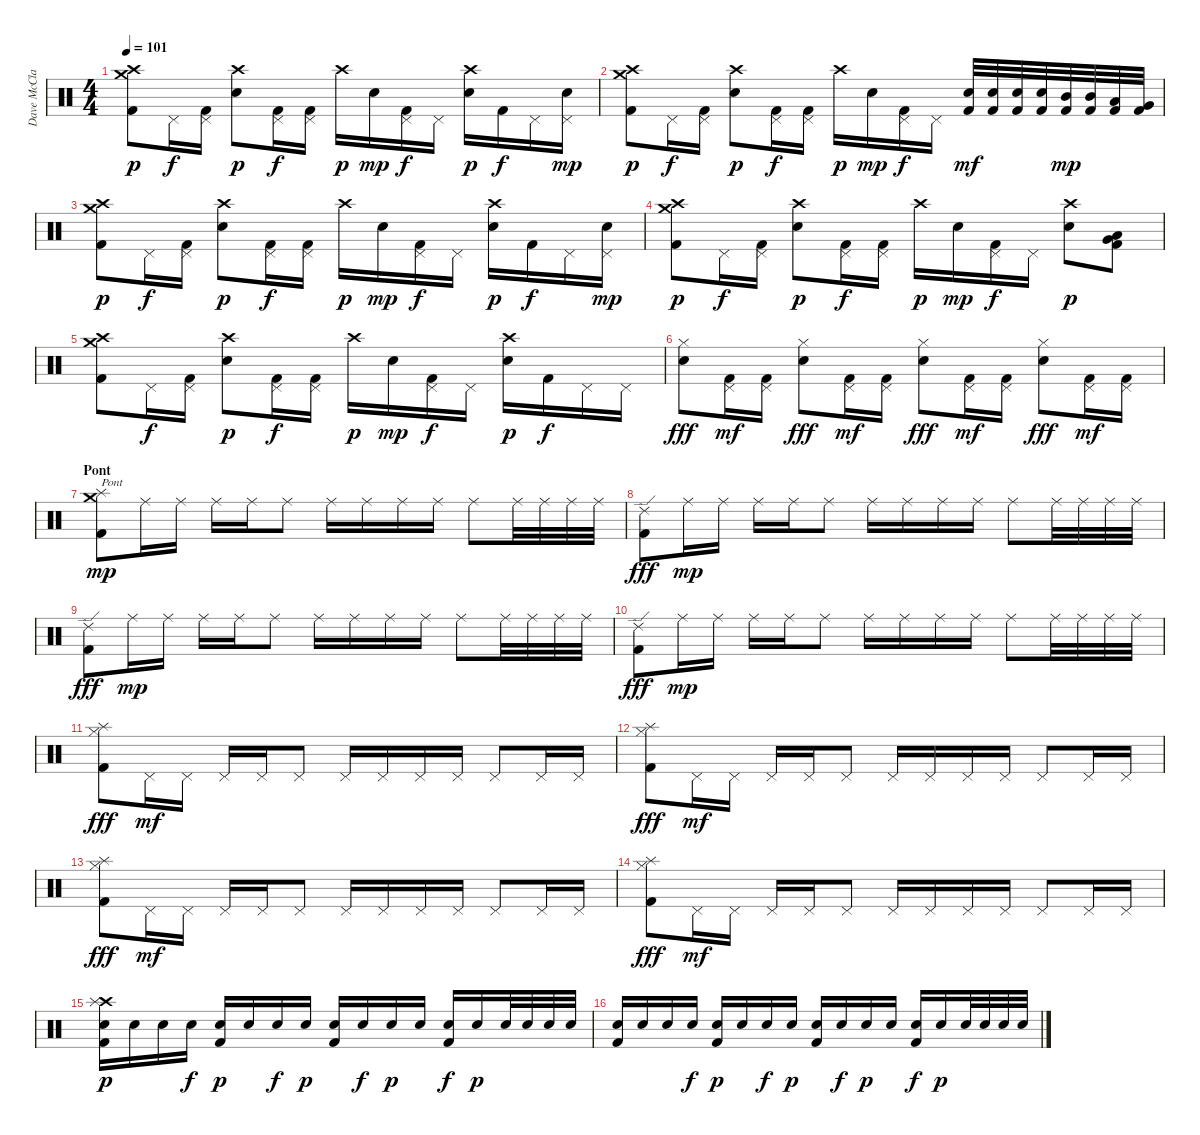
\track ("Dave McClain" "Dave McCla") {instrument percussion}
\staff {score}
\articulation defaults
\ts (4 4)
\tempo 101
\clef neutral
\ks c
("Crash medium (hit)" "Crash high (hit)" "Kick (hit) 2").8{dy p} "Pedal Hi-Hat (hit)".16{dy f} ("Pedal Hi-Hat (hit)" "Kick (hit) 2").16 ("Crash high (hit)" "Electric Snare (hit)").8{dy p} ("Pedal Hi-Hat (hit)" "Kick (hit) 2").16{dy f} ("Pedal Hi-Hat (hit)" "Kick (hit) 2").16 "Crash high (hit)".16{dy p} "Electric Snare (hit)".16{dy mp} ("Pedal Hi-Hat (hit)" "Kick (hit) 2").16{dy f} "Pedal Hi-Hat (hit)".16 ("Crash high (hit)" "Electric Snare (hit)").16{dy p} "Kick (hit) 2".16{dy f} "Pedal Hi-Hat (hit)".16 ("Electric Snare (hit)" "Pedal Hi-Hat (hit)").16{dy mp} |
("Crash medium (hit)" "Crash high (hit)" "Kick (hit) 2").8{dy p} "Pedal Hi-Hat (hit)".16{dy f} ("Pedal Hi-Hat (hit)" "Kick (hit) 2").16 ("Crash high (hit)" "Electric Snare (hit)").8{dy p} ("Pedal Hi-Hat (hit)" "Kick (hit) 2").16{dy f} ("Pedal Hi-Hat (hit)" "Kick (hit) 2").16 "Crash high (hit)".16{dy p} "Electric Snare (hit)".16{dy mp} ("Pedal Hi-Hat (hit)" "Kick (hit) 2").16{dy f} "Pedal Hi-Hat (hit)".16 ("Electric Snare (hit)" "Kick (hit) 2").32{dy mf} ("Electric Snare (hit)" "Kick (hit) 2").32 ("Electric Snare (hit)" "Kick (hit) 2").32 ("Electric Snare (hit)" "Kick (hit) 2").32 ("Mid Tom (hit)" "Kick (hit) 2").32{dy mp} ("Mid Tom (hit)" "Kick (hit) 2").32 ("Low Tom (hit)" "Kick (hit) 2").32 ("Very Low Tom (hit)" "Kick (hit) 2").32 |
("Crash medium (hit)" "Crash high (hit)" "Kick (hit) 2").8{dy p} "Pedal Hi-Hat (hit)".16{dy f} ("Pedal Hi-Hat (hit)" "Kick (hit) 2").16 ("Crash high (hit)" "Electric Snare (hit)").8{dy p} ("Pedal Hi-Hat (hit)" "Kick (hit) 2").16{dy f} ("Pedal Hi-Hat (hit)" "Kick (hit) 2").16 "Crash high (hit)".16{dy p} "Electric Snare (hit)".16{dy mp} ("Pedal Hi-Hat (hit)" "Kick (hit) 2").16{dy f} "Pedal Hi-Hat (hit)".16 ("Crash high (hit)" "Electric Snare (hit)").16{dy p} "Kick (hit) 2".16{dy f} "Pedal Hi-Hat (hit)".16 ("Electric Snare (hit)" "Pedal Hi-Hat (hit)").16{dy mp} |
("Crash medium (hit)" "Crash high (hit)" "Kick (hit) 2").8{dy p} "Pedal Hi-Hat (hit)".16{dy f} ("Pedal Hi-Hat (hit)" "Kick (hit) 2").16 ("Crash high (hit)" "Electric Snare (hit)").8{dy p} ("Pedal Hi-Hat (hit)" "Kick (hit) 2").16{dy f} ("Pedal Hi-Hat (hit)" "Kick (hit) 2").16 "Crash high (hit)".16{dy p} "Electric Snare (hit)".16{dy mp} ("Pedal Hi-Hat (hit)" "Kick (hit) 2").16{dy f} "Pedal Hi-Hat (hit)".16 ("Crash high (hit)" "Electric Snare (hit)").8{dy p} ("Very Low Tom (hit)" "Low Tom (hit)" "Kick (hit) 2").8 |
("Crash medium (hit)" "Crash high (hit)" "Kick (hit) 2").8 "Pedal Hi-Hat (hit)".16{dy f} ("Pedal Hi-Hat (hit)" "Kick (hit) 2").16 ("Crash high (hit)" "Electric Snare (hit)").8{dy p} ("Pedal Hi-Hat (hit)" "Kick (hit) 2").16{dy f} ("Pedal Hi-Hat (hit)" "Kick (hit) 2").16 "Crash high (hit)".16{dy p} "Electric Snare (hit)".16{dy mp} ("Pedal Hi-Hat (hit)" "Kick (hit) 2").16{dy f} "Pedal Hi-Hat (hit)".16 ("Crash high (hit)" "Electric Snare (hit)").16{dy p} "Kick (hit) 2".16{dy f} "Pedal Hi-Hat (hit)".16 "Pedal Hi-Hat (hit)".16 |
("Electric Snare (hit)" "Hi-Hat (closed)").8{dy fff} ("Pedal Hi-Hat (hit)" "Kick (hit) 2").16{dy mf} ("Pedal Hi-Hat (hit)" "Kick (hit) 2").16 ("Electric Snare (hit)" "Hi-Hat (closed)").8{dy fff} ("Pedal Hi-Hat (hit)" "Kick (hit) 2").16{dy mf} ("Pedal Hi-Hat (hit)" "Kick (hit) 2").16 ("Electric Snare (hit)" "Hi-Hat (closed)").8{dy fff} ("Pedal Hi-Hat (hit)" "Kick (hit) 2").16{dy mf} ("Pedal Hi-Hat (hit)" "Kick (hit) 2").16 ("Electric Snare (hit)" "Hi-Hat (closed)").8{dy fff} ("Pedal Hi-Hat (hit)" "Kick (hit) 2").16{dy mf} ("Pedal Hi-Hat (hit)" "Kick (hit) 2").16 |
\section ("" "Pont")
("Crash medium (hit)" "Splash (hit)" "Kick (hit) 2").8{txt "Pont" dy mp} "Ride (middle)".16 "Ride (middle)".16 "Ride (middle)".16 "Ride (middle)".16 "Ride (middle)".8 "Ride (middle)".16 "Ride (middle)".16 "Ride (middle)".16 "Ride (middle)".16 "Ride (middle)".8 "Ride (middle)".32 "Ride (middle)".32 "Ride (middle)".32 "Ride (middle)".32 |
("Ride (edge) 2" "Kick (hit) 2").8{dy fff} "Ride (middle)".16{dy mp} "Ride (middle)".16 "Ride (middle)".16 "Ride (middle)".16 "Ride (middle)".8 "Ride (middle)".16 "Ride (middle)".16 "Ride (middle)".16 "Ride (middle)".16 "Ride (middle)".8 "Ride (middle)".32 "Ride (middle)".32 "Ride (middle)".32 "Ride (middle)".32 |
("Ride (edge) 2" "Kick (hit) 2").8{dy fff} "Ride (middle)".16{dy mp} "Ride (middle)".16 "Ride (middle)".16 "Ride (middle)".16 "Ride (middle)".8 "Ride (middle)".16 "Ride (middle)".16 "Ride (middle)".16 "Ride (middle)".16 "Ride (middle)".8 "Ride (middle)".32 "Ride (middle)".32 "Ride (middle)".32 "Ride (middle)".32 |
("Ride (edge) 2" "Kick (hit) 2").8{dy fff} "Ride (middle)".16{dy mp} "Ride (middle)".16 "Ride (middle)".16 "Ride (middle)".16 "Ride (middle)".8 "Ride (middle)".16 "Ride (middle)".16 "Ride (middle)".16 "Ride (middle)".16 "Ride (middle)".8 "Ride (middle)".32 "Ride (middle)".32 "Ride (middle)".32 "Ride (middle)".32 |
("Splash (hit)" "Hi-Hat (closed)" "Kick (hit) 2").8{dy fff} "Pedal Hi-Hat (hit)".16{dy mf} "Pedal Hi-Hat (hit)".16 "Pedal Hi-Hat (hit)".16 "Pedal Hi-Hat (hit)".16 "Pedal Hi-Hat (hit)".8 "Pedal Hi-Hat (hit)".16 "Pedal Hi-Hat (hit)".16 "Pedal Hi-Hat (hit)".16 "Pedal Hi-Hat (hit)".16 "Pedal Hi-Hat (hit)".8 "Pedal Hi-Hat (hit)".16 "Pedal Hi-Hat (hit)".16 |
("Splash (hit)" "Hi-Hat (closed)" "Kick (hit) 2").8{dy fff} "Pedal Hi-Hat (hit)".16{dy mf} "Pedal Hi-Hat (hit)".16 "Pedal Hi-Hat (hit)".16 "Pedal Hi-Hat (hit)".16 "Pedal Hi-Hat (hit)".8 "Pedal Hi-Hat (hit)".16 "Pedal Hi-Hat (hit)".16 "Pedal Hi-Hat (hit)".16 "Pedal Hi-Hat (hit)".16 "Pedal Hi-Hat (hit)".8 "Pedal Hi-Hat (hit)".16 "Pedal Hi-Hat (hit)".16 |
("Splash (hit)" "Hi-Hat (closed)" "Kick (hit) 2").8{dy fff} "Pedal Hi-Hat (hit)".16{dy mf} "Pedal Hi-Hat (hit)".16 "Pedal Hi-Hat (hit)".16 "Pedal Hi-Hat (hit)".16 "Pedal Hi-Hat (hit)".8 "Pedal Hi-Hat (hit)".16 "Pedal Hi-Hat (hit)".16 "Pedal Hi-Hat (hit)".16 "Pedal Hi-Hat (hit)".16 "Pedal Hi-Hat (hit)".8 "Pedal Hi-Hat (hit)".16 "Pedal Hi-Hat (hit)".16 |
("Splash (hit)" "Hi-Hat (closed)" "Kick (hit) 2").8{dy fff} "Pedal Hi-Hat (hit)".16{dy mf} "Pedal Hi-Hat (hit)".16 "Pedal Hi-Hat (hit)".16 "Pedal Hi-Hat (hit)".16 "Pedal Hi-Hat (hit)".8 "Pedal Hi-Hat (hit)".16 "Pedal Hi-Hat (hit)".16 "Pedal Hi-Hat (hit)".16 "Pedal Hi-Hat (hit)".16 "Pedal Hi-Hat (hit)".8 "Pedal Hi-Hat (hit)".16 "Pedal Hi-Hat (hit)".16 |
("Crash high (hit)" "Splash (hit)" "Electric Snare (hit)" "Kick (hit) 2").16{dy p} "Electric Snare (hit)".16 "Electric Snare (hit)".16 "Electric Snare (hit)".16{dy f} ("Electric Snare (hit)" "Kick (hit) 2").16{dy p} "Electric Snare (hit)".16 "Electric Snare (hit)".16{dy f} "Electric Snare (hit)".16{dy p} ("Electric Snare (hit)" "Kick (hit) 2").16 "Electric Snare (hit)".16{dy f} "Electric Snare (hit)".16{dy p} "Electric Snare (hit)".16 ("Electric Snare (hit)" "Kick (hit) 2").16{dy f} "Electric Snare (hit)".16{dy p} "Electric Snare (hit)".32 "Electric Snare (hit)".32 "Electric Snare (hit)".32 "Electric Snare (hit)".32 |
("Electric Snare (hit)" "Kick (hit) 2").16 "Electric Snare (hit)".16 "Electric Snare (hit)".16 "Electric Snare (hit)".16{dy f} ("Electric Snare (hit)" "Kick (hit) 2").16{dy p} "Electric Snare (hit)".16 "Electric Snare (hit)".16{dy f} "Electric Snare (hit)".16{dy p} ("Electric Snare (hit)" "Kick (hit) 2").16 "Electric Snare (hit)".16{dy f} "Electric Snare (hit)".16{dy p} "Electric Snare (hit)".16 ("Electric Snare (hit)" "Kick (hit) 2").16{dy f} "Electric Snare (hit)".16{dy p} "Electric Snare (hit)".32 "Electric Snare (hit)".32 "Electric Snare (hit)".32 "Electric Snare (hit)".32
